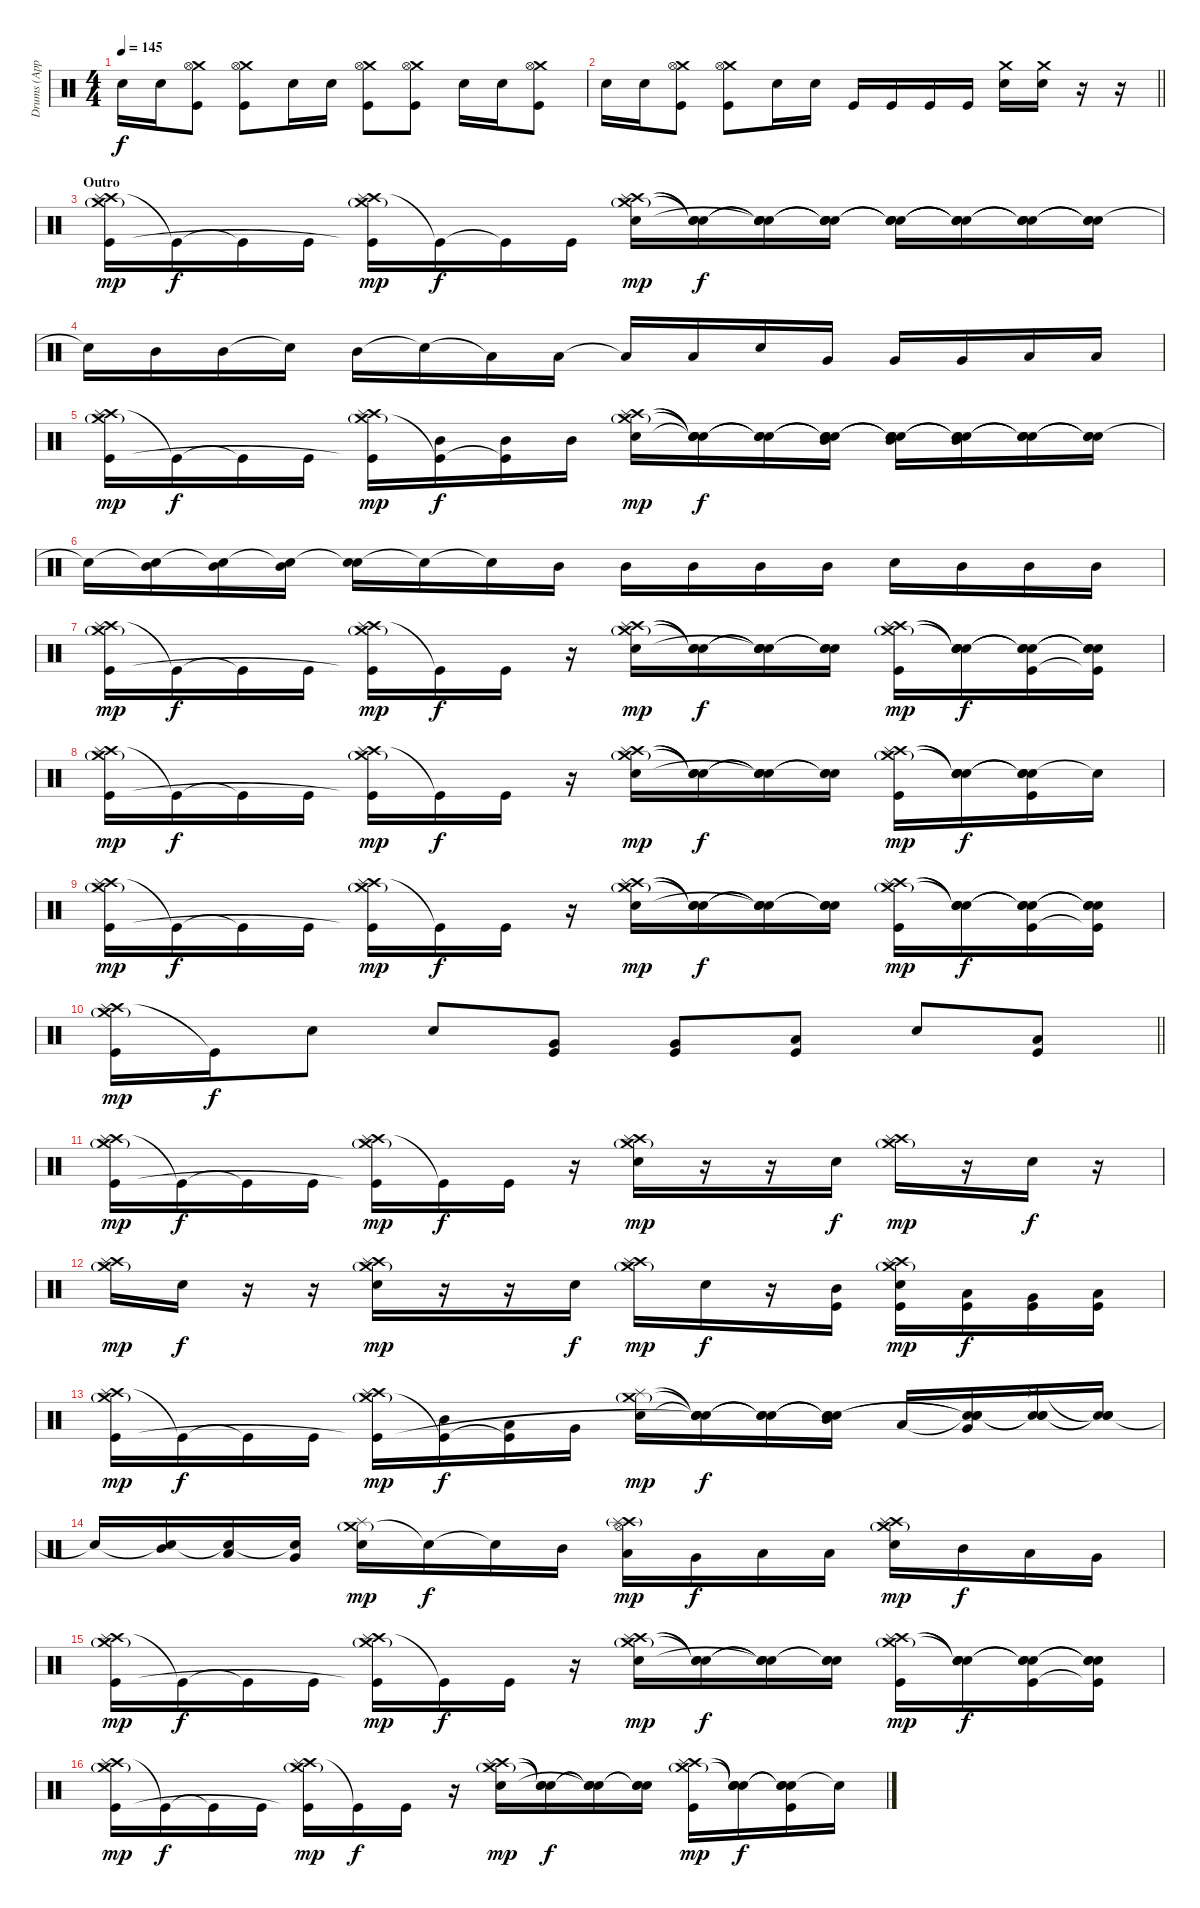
\track ("Drums (Approx.)" "Drums (App") {instrument percussion}
\staff {score}
\articulation defaults
\ts (4 4)
\tempo 145
\clef neutral
\ks c "Electric Snare (hit)".16{dy f} "Electric Snare (hit)".16
("Crash medium (hit)" "Hi-Hat (open)" "Kick (hit)").8 ("Crash medium (hit)" "Hi-Hat (open)" "Kick (hit)").8 "Electric Snare (hit)".16 "Electric Snare (hit)".16 ("Crash medium (hit)" "Hi-Hat (open)" "Kick (hit)").8 ("Crash medium (hit)" "Hi-Hat (open)" "Kick (hit)").8 "Electric Snare (hit)".16 "Electric Snare (hit)".16 ("Crash medium (hit)" "Hi-Hat (open)" "Kick (hit)").8 |
\barLineRight lightlight "Electric Snare (hit)".16 "Electric Snare (hit)".16
("Crash medium (hit)" "Hi-Hat (open)" "Kick (hit)").8 ("Crash medium (hit)" "Hi-Hat (open)" "Kick (hit)").8 "Electric Snare (hit)".16 "Electric Snare (hit)".16 "Kick (hit)".16 "Kick (hit)".16 "Kick (hit)".16 "Kick (hit)".16 ("Crash medium (hit)" "Electric Snare (hit)").16 ("Crash medium (hit)" "Electric Snare (hit)").16 r.16 r.16 |
\section ("" "Outro")
("Crash high (hit)" "Crash medium (hit)"{g} "Splash (hit)" "Kick (hit)").16{dy mp} "Kick (hit)"{t}.16{dy f} "Kick (hit)"{t}.16 "Kick (hit)".16 ("Crash high (hit)" "Crash medium (hit)"{g} "Splash (hit)" "Kick (hit)"{t}).16{dy mp} "Kick (hit)"{t}.16{dy f} "Kick (hit)"{t}.16 "Kick (hit)".16 ("Crash high (hit)" "Crash medium (hit)"{g} "Splash (hit)" "Electric Snare (hit)").16{dy mp} ("Snare (hit)"{t} "Snare (hit)"{t} "Snare (hit)"{t}).16{dy f} ("Snare (hit)"{t} "Snare (hit)"{t} "Snare (hit)"{t} "Electric Snare (hit)"{t}).16 ("Snare (hit)"{t} "Snare (hit)"{t} "Snare (hit)"{t} "Electric Snare (hit)").16 ("Snare (hit)"{t} "Snare (hit)"{t} "Snare (hit)"{t} "Electric Snare (hit)").16 ("Snare (hit)"{t} "Snare (hit)"{t} "Snare (hit)"{t} "Electric Snare (hit)"{t}).16 ("Snare (hit)"{t} "Snare (hit)"{t} "Snare (hit)"{t} "Electric Snare (hit)").16 ("Snare (hit)"{t} "Snare (hit)"{t} "Snare (hit)"{t}).16 |
"Snare (hit)"{t}.16 "Mid Tom (hit)".16 "Mid Tom (hit)".16 "Snare (hit)"{t}.16 "Mid Tom (hit)".16 "Snare (hit)"{t}.16 "Low Tom (hit)"{t}.16 "Low Tom (hit)".16 "Low Tom (hit)"{t}.16 "Low Tom (hit)".16 "Electric Snare (hit)".16 "Very Low Tom (hit)".16 "Very Low Tom (hit)".16 "Very Low Tom (hit)".16 "Low Floor Tom (hit)".16 "Low Floor Tom (hit)".16 |
("Crash high (hit)" "Crash medium (hit)"{g} "Splash (hit)" "Kick (hit)").16{dy mp} "Kick (hit)"{t}.16{dy f} "Kick (hit)"{t}.16 "Kick (hit)".16 ("Crash high (hit)" "Crash medium (hit)"{g} "Splash (hit)" "Kick (hit)"{t}).16{dy mp} ("Mid Tom (hit)" "Kick (hit)"{t}).16{dy f} ("Mid Tom (hit)" "Kick (hit)"{t}).16 "Mid Tom (hit)".16 ("Crash high (hit)" "Crash medium (hit)"{g} "Splash (hit)" "Electric Snare (hit)").16{dy mp} ("Snare (hit)"{t} "Snare (hit)"{t} "Snare (hit)"{t} "Electric Snare (hit)"{t}).16{dy f} ("Snare (hit)"{t} "Snare (hit)"{t} "Snare (hit)"{t}).16 ("Snare (hit)"{t} "Snare (hit)"{t} "Snare (hit)"{t} "Mid Tom (hit)").16 ("Snare (hit)"{t} "Snare (hit)"{t} "Snare (hit)"{t} "Mid Tom (hit)").16 ("Snare (hit)"{t} "Snare (hit)"{t} "Snare (hit)"{t} "Mid Tom (hit)").16 ("Snare (hit)"{t} "Snare (hit)"{t} "Snare (hit)"{t} "Electric Snare (hit)").16 ("Snare (hit)"{t} "Snare (hit)"{t} "Snare (hit)"{t}).16 |
"Snare (hit)"{t}.16 ("Snare (hit)"{t} "Mid Tom (hit)").16 ("Snare (hit)"{t} "Mid Tom (hit)").16 ("Snare (hit)"{t} "Mid Tom (hit)").16 ("Snare (hit)"{t} "Electric Snare (hit)").16 "Snare (hit)"{t}.16 "Snare (hit)"{t}.16 "Mid Tom (hit)".16 "Mid Tom (hit)".16 "Mid Tom (hit)".16 "Mid Tom (hit)".16 "Mid Tom (hit)".16 "Electric Snare (hit)".16 "Mid Tom (hit)".16 "Mid Tom (hit)".16 "Mid Tom (hit)".16 |
("Crash high (hit)" "Crash medium (hit)"{g} "Splash (hit)" "Kick (hit)").16{dy mp} "Kick (hit)"{t}.16{dy f} "Kick (hit)"{t}.16 "Kick (hit)".16 ("Crash high (hit)" "Crash medium (hit)"{g} "Splash (hit)" "Kick (hit)"{t}).16{dy mp} "Kick (hit)"{t}.16{dy f} "Kick (hit)".16 r.16 ("Crash high (hit)" "Crash medium (hit)"{g} "Splash (hit)" "Electric Snare (hit)").16{dy mp} ("Snare (hit)"{t} "Snare (hit)"{t} "Snare (hit)"{t}).16{dy f} ("Snare (hit)"{t} "Snare (hit)"{t} "Snare (hit)"{t} "Electric Snare (hit)"{t}).16 ("Snare (hit)"{t} "Snare (hit)"{t} "Electric Snare (hit)").16 ("Crash high (hit)" "Crash medium (hit)"{g} "Splash (hit)" "Kick (hit)").16{dy mp} ("Snare (hit)"{t} "Snare (hit)"{t} "Snare (hit)"{t} "Electric Snare (hit)").16{dy f} ("Snare (hit)"{t} "Snare (hit)"{t} "Snare (hit)"{t} "Kick (hit)").16 ("Snare (hit)"{t} "Snare (hit)"{t} "Snare (hit)"{t} "Kick (hit)"{t}).16 |
("Crash high (hit)" "Crash medium (hit)"{g} "Splash (hit)" "Kick (hit)").16{dy mp} "Kick (hit)"{t}.16{dy f} "Kick (hit)"{t}.16 "Kick (hit)".16 ("Crash high (hit)" "Crash medium (hit)"{g} "Splash (hit)" "Kick (hit)"{t}).16{dy mp} "Kick (hit)"{t}.16{dy f} "Kick (hit)".16 r.16 ("Crash high (hit)" "Crash medium (hit)"{g} "Splash (hit)" "Electric Snare (hit)").16{dy mp} ("Snare (hit)"{t} "Snare (hit)"{t} "Snare (hit)"{t}).16{dy f} ("Snare (hit)"{t} "Snare (hit)"{t} "Snare (hit)"{t} "Electric Snare (hit)"{t}).16 ("Snare (hit)"{t} "Snare (hit)"{t} "Electric Snare (hit)").16 ("Crash high (hit)" "Crash medium (hit)"{g} "Splash (hit)" "Kick (hit)").16{dy mp} ("Snare (hit)"{t} "Snare (hit)"{t} "Snare (hit)"{t} "Electric Snare (hit)").16{dy f} ("Snare (hit)"{t} "Snare (hit)"{t} "Snare (hit)"{t} "Kick (hit)").16 "Snare (hit)"{t}.16 |
("Crash high (hit)" "Crash medium (hit)"{g} "Splash (hit)" "Kick (hit)").16{dy mp} "Kick (hit)"{t}.16{dy f} "Kick (hit)"{t}.16 "Kick (hit)".16 ("Crash high (hit)" "Crash medium (hit)"{g} "Splash (hit)" "Kick (hit)"{t}).16{dy mp} "Kick (hit)"{t}.16{dy f} "Kick (hit)".16 r.16 ("Crash high (hit)" "Crash medium (hit)"{g} "Splash (hit)" "Electric Snare (hit)").16{dy mp} ("Snare (hit)"{t} "Snare (hit)"{t} "Snare (hit)"{t}).16{dy f} ("Snare (hit)"{t} "Snare (hit)"{t} "Snare (hit)"{t} "Electric Snare (hit)"{t}).16 ("Snare (hit)"{t} "Snare (hit)"{t} "Electric Snare (hit)").16 ("Crash high (hit)" "Crash medium (hit)"{g} "Splash (hit)" "Kick (hit)").16{dy mp} ("Snare (hit)"{t} "Snare (hit)"{t} "Snare (hit)"{t} "Electric Snare (hit)").16{dy f} ("Snare (hit)"{t} "Snare (hit)"{t} "Snare (hit)"{t} "Kick (hit)").16 ("Snare (hit)"{t} "Snare (hit)"{t} "Snare (hit)"{t} "Kick (hit)"{t}).16 |
\barLineRight lightlight
("Crash high (hit)" "Crash medium (hit)"{g} "Splash (hit)" "Kick (hit)").16{dy mp} "Kick (hit)"{t}.16{dy f} "Electric Snare (hit)".8 "Electric Snare (hit)".8 ("Very Low Tom (hit)" "Kick (hit)").8 ("Very Low Tom (hit)" "Kick (hit)").8 ("Low Floor Tom (hit)" "Kick (hit)").8 "Electric Snare (hit)".8 ("Low Floor Tom (hit)" "Kick (hit)").8 |
("Crash high (hit)" "Crash medium (hit)"{g} "Splash (hit)" "Kick (hit)").16{dy mp} "Kick (hit)"{t}.16{dy f} "Kick (hit)"{t}.16 "Kick (hit)".16 ("Crash high (hit)" "Crash medium (hit)"{g} "Splash (hit)" "Kick (hit)"{t}).16{dy mp} "Kick (hit)"{t}.16{dy f} "Kick (hit)".16 r.16 ("Crash high (hit)" "Crash medium (hit)"{g} "Splash (hit)" "Electric Snare (hit)").16{dy mp} r.16 r.16 "Electric Snare (hit)".16{dy f} ("Crash high (hit)" "Crash medium (hit)"{g} "Splash (hit)").16{dy mp} r.16 "Electric Snare (hit)".16{dy f} r.16 |
("Crash high (hit)" "Crash medium (hit)"{g} "Splash (hit)").16{dy mp} "Electric Snare (hit)".16{dy f} r.16 r.16 ("Crash high (hit)" "Crash medium (hit)"{g} "Splash (hit)" "Electric Snare (hit)").16{dy mp} r.16 r.16 "Electric Snare (hit)".16{dy f} ("Crash high (hit)" "Crash medium (hit)"{g} "Splash (hit)").16{dy mp} "Electric Snare (hit)".16{dy f} r.16 ("Kick (hit)" "Mid Tom (hit)").16 ("Crash high (hit)" "Crash medium (hit)"{g} "Splash (hit)" "Kick (hit)" "Electric Snare (hit)").16{dy mp} ("Kick (hit)" "Low Tom (hit)").16{dy f} ("Kick (hit)" "Very Low Tom (hit)").16 ("Kick (hit)" "Low Floor Tom (hit)").16 |
("Crash high (hit)" "Crash medium (hit)"{g} "Splash (hit)" "Kick (hit)").16{dy mp} "Kick (hit)"{t}.16{dy f} "Kick (hit)"{t}.16 "Kick (hit)".16 ("Crash high (hit)" "Crash medium (hit)"{g} "Splash (hit)" "Kick (hit)"{t}).16{dy mp} ("Mid Tom (hit)" "Kick (hit)"{t}).16{dy f} ("Low Tom (hit)" "Kick (hit)"{t}).16 "Very Low Tom (hit)".16 ("Crash medium (hit)"{g} "Splash (hit)" "Electric Snare (hit)").16{dy mp} ("Snare (hit)"{t} "Snare (hit)"{t} "Snare (hit)"{t} "Electric Snare (hit)"{t}).16{dy f} ("Snare (hit)"{t} "Snare (hit)"{t} "Snare (hit)"{t}).16 ("Snare (hit)"{t} "Snare (hit)"{t} "Snare (hit)"{t} "Mid Tom (hit)").16 "Low Tom (hit)".16 ("Snare (hit)"{t} "Snare (hit)"{t} "Snare (hit)"{t} "Very Low Tom (hit)").16 ("Snare (hit)"{t} "Snare (hit)"{t} "Splash (hit)" "Electric Snare (hit)").16 ("Snare (hit)"{t} "Snare (hit)"{t} "Snare (hit)"{t}).16 |
"Snare (hit)"{t}.16 ("Snare (hit)"{t} "Mid Tom (hit)").16 ("Snare (hit)"{t} "Low Tom (hit)").16 ("Snare (hit)"{t} "Very Low Tom (hit)").16 ("Crash medium (hit)"{g} "Splash (hit)" "Electric Snare (hit)").16{dy mp} "Snare (hit)"{t}.16{dy f} "Snare (hit)"{t}.16 "Mid Tom (hit)".16 ("Hi-Hat (open)" "Crash high (hit)"{g} "Splash (hit)" "Low Tom (hit)").16{dy mp} "Very Low Tom (hit)".16{dy f} "Low Floor Tom (hit)".16 "Low Floor Tom (hit)".16 ("Crash high (hit)" "Crash medium (hit)"{g} "Splash (hit)" "Electric Snare (hit)").16{dy mp} "Mid Tom (hit)".16{dy f} "Low Tom (hit)".16 "Very Low Tom (hit)".16 |
("Crash high (hit)" "Crash medium (hit)"{g} "Splash (hit)" "Kick (hit)").16{dy mp} "Kick (hit)"{t}.16{dy f} "Kick (hit)"{t}.16 "Kick (hit)".16 ("Crash high (hit)" "Crash medium (hit)"{g} "Splash (hit)" "Kick (hit)"{t}).16{dy mp} "Kick (hit)"{t}.16{dy f} "Kick (hit)".16 r.16 ("Crash high (hit)" "Crash medium (hit)"{g} "Splash (hit)" "Electric Snare (hit)").16{dy mp} ("Snare (hit)"{t} "Snare (hit)"{t} "Snare (hit)"{t}).16{dy f} ("Snare (hit)"{t} "Snare (hit)"{t} "Snare (hit)"{t} "Electric Snare (hit)"{t}).16 ("Snare (hit)"{t} "Snare (hit)"{t} "Electric Snare (hit)").16 ("Crash high (hit)" "Crash medium (hit)"{g} "Splash (hit)" "Kick (hit)").16{dy mp} ("Snare (hit)"{t} "Snare (hit)"{t} "Snare (hit)"{t} "Electric Snare (hit)").16{dy f} ("Snare (hit)"{t} "Snare (hit)"{t} "Snare (hit)"{t} "Kick (hit)").16 ("Snare (hit)"{t} "Snare (hit)"{t} "Snare (hit)"{t} "Kick (hit)"{t}).16 |
("Crash high (hit)" "Crash medium (hit)"{g} "Splash (hit)" "Kick (hit)").16{dy mp} "Kick (hit)"{t}.16{dy f} "Kick (hit)"{t}.16 "Kick (hit)".16 ("Crash high (hit)" "Crash medium (hit)"{g} "Splash (hit)" "Kick (hit)"{t}).16{dy mp} "Kick (hit)"{t}.16{dy f} "Kick (hit)".16 r.16 ("Crash high (hit)" "Crash medium (hit)"{g} "Splash (hit)" "Electric Snare (hit)").16{dy mp} ("Snare (hit)"{t} "Snare (hit)"{t} "Snare (hit)"{t}).16{dy f} ("Snare (hit)"{t} "Snare (hit)"{t} "Snare (hit)"{t} "Electric Snare (hit)"{t}).16 ("Snare (hit)"{t} "Snare (hit)"{t} "Electric Snare (hit)").16 ("Crash high (hit)" "Crash medium (hit)"{g} "Splash (hit)" "Kick (hit)").16{dy mp} ("Snare (hit)"{t} "Snare (hit)"{t} "Snare (hit)"{t} "Electric Snare (hit)").16{dy f} ("Snare (hit)"{t} "Snare (hit)"{t} "Snare (hit)"{t} "Kick (hit)").16 "Snare (hit)"{t}.16
